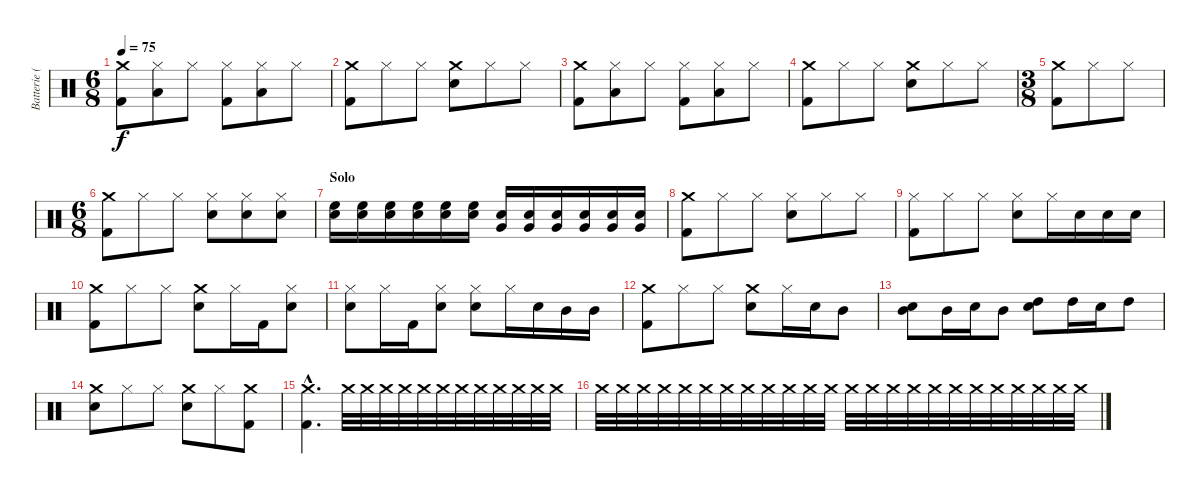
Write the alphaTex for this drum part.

\track ("Batterie ( Lars Ulrich )" "Batterie (") {instrument percussion}
\staff {score}
\articulation defaults
\ts (6 8)
\tempo 75
\clef neutral
\ks c
("Kick (hit) 2" "Crash medium (hit)").8{dy f} ("Low Tom (hit)" "Hi-Hat (closed)").8 "Hi-Hat (closed)".8 ("Kick (hit) 2" "Hi-Hat (closed)").8 ("Low Tom (hit)" "Hi-Hat (closed)").8 "Hi-Hat (closed)".8 |
("Kick (hit) 2" "Crash medium (hit)").8 "Hi-Hat (closed)".8 "Hi-Hat (closed)".8 ("Snare (hit) 2" "Crash medium (hit)").8 "Hi-Hat (closed)".8 "Hi-Hat (closed)".8 |
("Kick (hit) 2" "Crash medium (hit)").8 ("Low Tom (hit)" "Hi-Hat (closed)").8 "Hi-Hat (closed)".8 ("Kick (hit) 2" "Hi-Hat (closed)").8 ("Low Tom (hit)" "Hi-Hat (closed)").8 "Hi-Hat (closed)".8 |
("Kick (hit) 2" "Crash medium (hit)").8 "Hi-Hat (closed)".8 "Hi-Hat (closed)".8 ("Snare (hit) 2" "Crash medium (hit)").8 "Hi-Hat (closed)".8 "Hi-Hat (closed)".8 |
\ts (3 8)
("Kick (hit) 2" "Crash medium (hit)").8 "Hi-Hat (closed)".8 "Hi-Hat (closed)".8 |
\ts (6 8)
("Kick (hit) 2" "Crash medium (hit)").8 "Hi-Hat (closed)".8 "Hi-Hat (closed)".8 ("Snare (hit) 2" "Hi-Hat (closed)").8 ("Hi-Hat (closed)" "Snare (hit) 2").8 ("Snare (hit) 2" "Hi-Hat (closed)").8 |
\section ("" "Solo")
("High Floor Tom (hit)" "Snare (hit) 2").16 ("High Floor Tom (hit)" "Snare (hit) 2").16 ("High Floor Tom (hit)" "Snare (hit) 2").16 ("High Floor Tom (hit)" "Snare (hit) 2").16 ("High Floor Tom (hit)" "Snare (hit) 2").16 ("High Floor Tom (hit)" "Snare (hit) 2").16 ("Very Low Tom (hit)" "Snare (hit) 2").16 ("Very Low Tom (hit)" "Snare (hit) 2").16 ("Very Low Tom (hit)" "Snare (hit) 2").16 ("Very Low Tom (hit)" "Snare (hit) 2").16 ("Very Low Tom (hit)" "Snare (hit) 2").16 ("Very Low Tom (hit)" "Snare (hit) 2").16 |
("Kick (hit) 2" "Crash medium (hit)").8 "Hi-Hat (closed)".8 "Hi-Hat (closed)".8 ("Snare (hit) 2" "Hi-Hat (closed)").8 "Hi-Hat (closed)".8 "Hi-Hat (closed)".8 |
("Kick (hit) 2" "Hi-Hat (closed)").8 "Hi-Hat (closed)".8 "Hi-Hat (closed)".8 ("Snare (hit) 2" "Hi-Hat (closed)").8 "Hi-Hat (closed)".16 "Snare (hit) 2".16 "Snare (hit) 2".16 "Snare (hit) 2".16 |
("Kick (hit) 2" "Crash medium (hit)").8 "Hi-Hat (closed)".8 "Hi-Hat (closed)".8 ("Snare (hit) 2" "Crash medium (hit)").8 "Hi-Hat (closed)".16 "Kick (hit) 2".16 ("Snare (hit) 2" "Hi-Hat (closed)").8 |
("Snare (hit) 2" "Hi-Hat (closed)").8 "Hi-Hat (closed)".16 "Kick (hit) 2".16 ("Snare (hit) 2" "Hi-Hat (closed)").8 ("Snare (hit) 2" "Hi-Hat (closed)").8 "Hi-Hat (closed)".16 "Snare (hit) 2".16 "Mid Tom (hit)".16 "Mid Tom (hit)".16 |
("Kick (hit) 2" "Crash medium (hit)").8 "Hi-Hat (closed)".8 "Hi-Hat (closed)".8 ("Snare (hit) 2" "Crash medium (hit)").8 "Hi-Hat (closed)".16 "Snare (hit) 2".16 "Mid Tom (hit)".8 |
("Mid Tom (hit)" "Snare (hit) 2").8 "Mid Tom (hit)".16 "Snare (hit) 2".16 "Mid Tom (hit)".8 ("High Tom (hit)" "Snare (hit) 2").8 "High Tom (hit)".16 "Snare (hit) 2".16 "High Tom (hit)".8 |
("Snare (hit) 2" "Crash medium (hit)").8 "Hi-Hat (closed)".8 "Hi-Hat (closed)".8 ("Snare (hit) 2" "Crash medium (hit)").8 "Hi-Hat (closed)".8 ("Kick (hit) 2" "Crash medium (hit)").8 |
("Kick (hit) 2"{hac} "Crash medium (hit)"{hac}).4{d volume 0} "Crash medium (hit)".32 "Crash medium (hit)".32 "Crash medium (hit)".32 "Crash medium (hit)".32 "Crash medium (hit)".32 "Crash medium (hit)".32 "Crash medium (hit)".32 "Crash medium (hit)".32 "Crash medium (hit)".32 "Crash medium (hit)".32 "Crash medium (hit)".32 "Crash medium (hit)".32 |
"Crash medium (hit)".32 "Crash medium (hit)".32 "Crash medium (hit)".32 "Crash medium (hit)".32 "Crash medium (hit)".32{volume 12} "Crash medium (hit)".32 "Crash medium (hit)".32 "Crash medium (hit)".32 "Crash medium (hit)".32 "Crash medium (hit)".32 "Crash medium (hit)".32 "Crash medium (hit)".32 "Crash medium (hit)".32 "Crash medium (hit)".32 "Crash medium (hit)".32 "Crash medium (hit)".32 "Crash medium (hit)".32 "Crash medium (hit)".32 "Crash medium (hit)".32 "Crash medium (hit)".32 "Crash medium (hit)".32 "Crash medium (hit)".32 "Crash medium (hit)".32 "Crash medium (hit)".32
